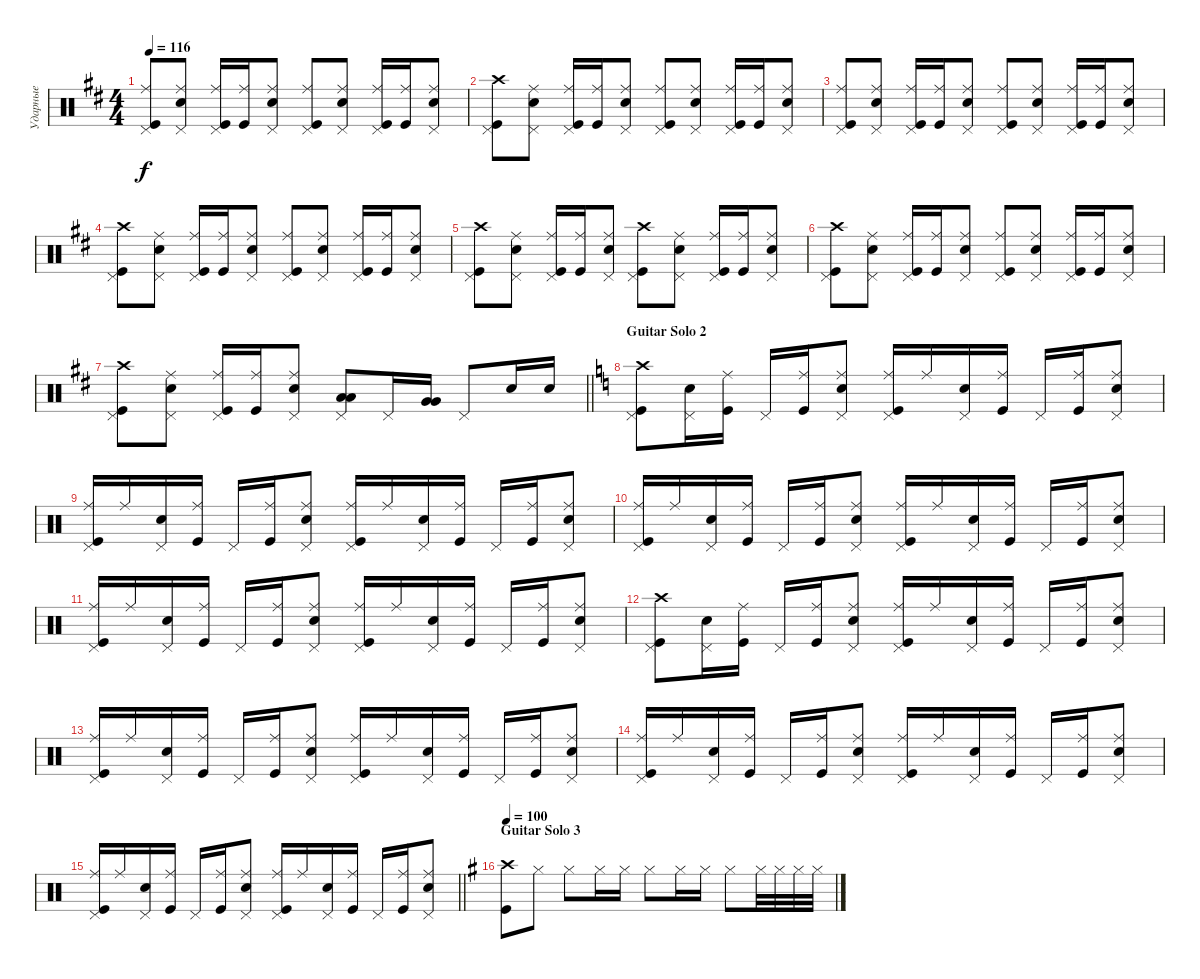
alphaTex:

\track ("Ударные" "Ударные") {instrument percussion}
\staff {score}
\articulation defaults
\ts (4 4)
\tempo 116
\clef neutral
\ks bminor
("Kick (hit)" "Ride (middle)" "Pedal Hi-Hat (hit)").8{dy f} ("Snare (hit) 2" "Pedal Hi-Hat (hit)" "Ride (middle)").8 ("Pedal Hi-Hat (hit)" "Kick (hit)" "Ride (middle)").16 ("Kick (hit)" "Ride (middle)").16 ("Snare (hit) 2" "Pedal Hi-Hat (hit)" "Ride (middle)").8 ("Kick (hit)" "Pedal Hi-Hat (hit)" "Ride (middle)").8 ("Snare (hit) 2" "Pedal Hi-Hat (hit)" "Ride (middle)").8 ("Kick (hit)" "Pedal Hi-Hat (hit)" "Ride (middle)").16 ("Kick (hit)" "Ride (middle)").16 ("Snare (hit) 2" "Pedal Hi-Hat (hit)" "Ride (middle)").8 |
("Kick (hit)" "Crash high (hit)" "Pedal Hi-Hat (hit)").8 ("Snare (hit) 2" "Pedal Hi-Hat (hit)" "Ride (middle)").8 ("Pedal Hi-Hat (hit)" "Kick (hit)" "Ride (middle)").16 ("Kick (hit)" "Ride (middle)").16 ("Snare (hit) 2" "Pedal Hi-Hat (hit)" "Ride (middle)").8 ("Kick (hit)" "Pedal Hi-Hat (hit)" "Ride (middle)").8 ("Snare (hit) 2" "Pedal Hi-Hat (hit)" "Ride (middle)").8 ("Kick (hit)" "Pedal Hi-Hat (hit)" "Ride (middle)").16 ("Kick (hit)" "Ride (middle)").16 ("Snare (hit) 2" "Pedal Hi-Hat (hit)" "Ride (middle)").8 |
("Kick (hit)" "Ride (middle)" "Pedal Hi-Hat (hit)").8 ("Snare (hit) 2" "Pedal Hi-Hat (hit)" "Ride (middle)").8 ("Pedal Hi-Hat (hit)" "Kick (hit)" "Ride (middle)").16 ("Kick (hit)" "Ride (middle)").16 ("Snare (hit) 2" "Pedal Hi-Hat (hit)" "Ride (middle)").8 ("Kick (hit)" "Pedal Hi-Hat (hit)" "Ride (middle)").8 ("Snare (hit) 2" "Pedal Hi-Hat (hit)" "Ride (middle)").8 ("Kick (hit)" "Pedal Hi-Hat (hit)" "Ride (middle)").16 ("Kick (hit)" "Ride (middle)").16 ("Snare (hit) 2" "Pedal Hi-Hat (hit)" "Ride (middle)").8 |
("Kick (hit)" "Crash high (hit)" "Pedal Hi-Hat (hit)").8 ("Snare (hit) 2" "Pedal Hi-Hat (hit)" "Ride (middle)").8 ("Pedal Hi-Hat (hit)" "Kick (hit)" "Ride (middle)").16 ("Kick (hit)" "Ride (middle)").16 ("Snare (hit) 2" "Pedal Hi-Hat (hit)" "Ride (middle)").8 ("Kick (hit)" "Pedal Hi-Hat (hit)" "Ride (middle)").8 ("Snare (hit) 2" "Pedal Hi-Hat (hit)" "Ride (middle)").8 ("Kick (hit)" "Pedal Hi-Hat (hit)" "Ride (middle)").16 ("Kick (hit)" "Ride (middle)").16 ("Snare (hit) 2" "Pedal Hi-Hat (hit)" "Ride (middle)").8 |
("Kick (hit)" "Crash high (hit)" "Pedal Hi-Hat (hit)").8 ("Snare (hit) 2" "Pedal Hi-Hat (hit)" "Ride (middle)").8 ("Pedal Hi-Hat (hit)" "Kick (hit)" "Ride (middle)").16 ("Kick (hit)" "Ride (middle)").16 ("Snare (hit) 2" "Pedal Hi-Hat (hit)" "Ride (middle)").8 ("Kick (hit)" "Pedal Hi-Hat (hit)" "Crash high (hit)").8 ("Snare (hit) 2" "Pedal Hi-Hat (hit)" "Ride (middle)").8 ("Kick (hit)" "Pedal Hi-Hat (hit)" "Ride (middle)").16 ("Kick (hit)" "Ride (middle)").16 ("Snare (hit) 2" "Pedal Hi-Hat (hit)" "Ride (middle)").8 |
("Kick (hit)" "Crash high (hit)" "Pedal Hi-Hat (hit)").8 ("Snare (hit) 2" "Pedal Hi-Hat (hit)" "Ride (middle)").8 ("Pedal Hi-Hat (hit)" "Kick (hit)" "Ride (middle)").16 ("Kick (hit)" "Ride (middle)").16 ("Snare (hit) 2" "Pedal Hi-Hat (hit)" "Ride (middle)").8 ("Kick (hit)" "Pedal Hi-Hat (hit)" "Ride (middle)").8 ("Snare (hit) 2" "Pedal Hi-Hat (hit)" "Ride (middle)").8 ("Kick (hit)" "Pedal Hi-Hat (hit)" "Ride (middle)").16 ("Kick (hit)" "Ride (middle)").16 ("Snare (hit) 2" "Pedal Hi-Hat (hit)" "Ride (middle)").8 |
\barLineRight lightlight
("Kick (hit)" "Crash high (hit)" "Pedal Hi-Hat (hit)").8 ("Snare (hit) 2" "Pedal Hi-Hat (hit)" "Ride (middle)").8 ("Pedal Hi-Hat (hit)" "Kick (hit)" "Ride (middle)").16 ("Kick (hit)" "Ride (middle)").16 ("Snare (hit) 2" "Pedal Hi-Hat (hit)" "Ride (middle)").8 ("Pedal Hi-Hat (hit)" "Low Tom (hit)" "Low Tom (hit)").8{bd 240} "Pedal Hi-Hat (hit)".16 ("Very Low Tom (hit)" "Very Low Tom (hit)").16{bd 480} "Pedal Hi-Hat (hit)".8 "Snare (hit) 2".16 "Snare (hit) 2".16 |
\section ("" "Guitar Solo 2")
\ks aminor
("Kick (hit)" "Crash high (hit)" "Pedal Hi-Hat (hit)").8 ("Snare (hit) 2" "Pedal Hi-Hat (hit)").16 ("Kick (hit)" "Ride (middle)").16 "Pedal Hi-Hat (hit)".16 ("Ride (middle)" "Kick (hit)").16 ("Snare (hit) 2" "Ride (middle)" "Pedal Hi-Hat (hit)").8 ("Kick (hit)" "Ride (middle)" "Pedal Hi-Hat (hit)").16 "Ride (middle)".16 ("Snare (hit) 2" "Pedal Hi-Hat (hit)").16 ("Kick (hit)" "Ride (middle)").16 "Pedal Hi-Hat (hit)".16 ("Ride (middle)" "Kick (hit)").16 ("Ride (middle)" "Snare (hit) 2" "Pedal Hi-Hat (hit)").8 |
("Kick (hit)" "Ride (middle)" "Pedal Hi-Hat (hit)").16 "Ride (middle)".16 ("Snare (hit) 2" "Pedal Hi-Hat (hit)").16 ("Kick (hit)" "Ride (middle)").16 "Pedal Hi-Hat (hit)".16 ("Ride (middle)" "Kick (hit)").16 ("Snare (hit) 2" "Ride (middle)" "Pedal Hi-Hat (hit)").8 ("Kick (hit)" "Ride (middle)" "Pedal Hi-Hat (hit)").16 "Ride (middle)".16 ("Snare (hit) 2" "Pedal Hi-Hat (hit)").16 ("Kick (hit)" "Ride (middle)").16 "Pedal Hi-Hat (hit)".16 ("Ride (middle)" "Kick (hit)").16 ("Ride (middle)" "Snare (hit) 2" "Pedal Hi-Hat (hit)").8 |
("Kick (hit)" "Ride (middle)" "Pedal Hi-Hat (hit)").16 "Ride (middle)".16 ("Snare (hit) 2" "Pedal Hi-Hat (hit)").16 ("Kick (hit)" "Ride (middle)").16 "Pedal Hi-Hat (hit)".16 ("Ride (middle)" "Kick (hit)").16 ("Snare (hit) 2" "Ride (middle)" "Pedal Hi-Hat (hit)").8 ("Kick (hit)" "Ride (middle)" "Pedal Hi-Hat (hit)").16 "Ride (middle)".16 ("Snare (hit) 2" "Pedal Hi-Hat (hit)").16 ("Kick (hit)" "Ride (middle)").16 "Pedal Hi-Hat (hit)".16 ("Ride (middle)" "Kick (hit)").16 ("Ride (middle)" "Snare (hit) 2" "Pedal Hi-Hat (hit)").8 |
("Kick (hit)" "Ride (middle)" "Pedal Hi-Hat (hit)").16 "Ride (middle)".16 ("Snare (hit) 2" "Pedal Hi-Hat (hit)").16 ("Kick (hit)" "Ride (middle)").16 "Pedal Hi-Hat (hit)".16 ("Ride (middle)" "Kick (hit)").16 ("Snare (hit) 2" "Ride (middle)" "Pedal Hi-Hat (hit)").8 ("Kick (hit)" "Ride (middle)" "Pedal Hi-Hat (hit)").16 "Ride (middle)".16 ("Snare (hit) 2" "Pedal Hi-Hat (hit)").16 ("Kick (hit)" "Ride (middle)").16 "Pedal Hi-Hat (hit)".16 ("Ride (middle)" "Kick (hit)").16 ("Ride (middle)" "Snare (hit) 2" "Pedal Hi-Hat (hit)").8 |
("Kick (hit)" "Crash high (hit)" "Pedal Hi-Hat (hit)").8 ("Snare (hit) 2" "Pedal Hi-Hat (hit)").16 ("Kick (hit)" "Ride (middle)").16 "Pedal Hi-Hat (hit)".16 ("Ride (middle)" "Kick (hit)").16 ("Snare (hit) 2" "Ride (middle)" "Pedal Hi-Hat (hit)").8 ("Kick (hit)" "Ride (middle)" "Pedal Hi-Hat (hit)").16 "Ride (middle)".16 ("Snare (hit) 2" "Pedal Hi-Hat (hit)").16 ("Kick (hit)" "Ride (middle)").16 "Pedal Hi-Hat (hit)".16 ("Ride (middle)" "Kick (hit)").16 ("Ride (middle)" "Snare (hit) 2" "Pedal Hi-Hat (hit)").8 |
("Kick (hit)" "Ride (middle)" "Pedal Hi-Hat (hit)").16 "Ride (middle)".16 ("Snare (hit) 2" "Pedal Hi-Hat (hit)").16 ("Kick (hit)" "Ride (middle)").16 "Pedal Hi-Hat (hit)".16 ("Ride (middle)" "Kick (hit)").16 ("Snare (hit) 2" "Ride (middle)" "Pedal Hi-Hat (hit)").8 ("Kick (hit)" "Ride (middle)" "Pedal Hi-Hat (hit)").16 "Ride (middle)".16 ("Snare (hit) 2" "Pedal Hi-Hat (hit)").16 ("Kick (hit)" "Ride (middle)").16 "Pedal Hi-Hat (hit)".16 ("Ride (middle)" "Kick (hit)").16 ("Ride (middle)" "Snare (hit) 2" "Pedal Hi-Hat (hit)").8 |
("Kick (hit)" "Ride (middle)" "Pedal Hi-Hat (hit)").16 "Ride (middle)".16 ("Snare (hit) 2" "Pedal Hi-Hat (hit)").16 ("Kick (hit)" "Ride (middle)").16 "Pedal Hi-Hat (hit)".16 ("Ride (middle)" "Kick (hit)").16 ("Snare (hit) 2" "Ride (middle)" "Pedal Hi-Hat (hit)").8 ("Kick (hit)" "Ride (middle)" "Pedal Hi-Hat (hit)").16 "Ride (middle)".16 ("Snare (hit) 2" "Pedal Hi-Hat (hit)").16 ("Kick (hit)" "Ride (middle)").16 "Pedal Hi-Hat (hit)".16 ("Ride (middle)" "Kick (hit)").16 ("Ride (middle)" "Snare (hit) 2" "Pedal Hi-Hat (hit)").8 |
\barLineRight lightlight
("Kick (hit)" "Ride (middle)" "Pedal Hi-Hat (hit)").16 "Ride (middle)".16 ("Snare (hit) 2" "Pedal Hi-Hat (hit)").16 ("Kick (hit)" "Ride (middle)").16 "Pedal Hi-Hat (hit)".16 ("Ride (middle)" "Kick (hit)").16 ("Snare (hit) 2" "Ride (middle)" "Pedal Hi-Hat (hit)").8 ("Kick (hit)" "Ride (middle)" "Pedal Hi-Hat (hit)").16 "Ride (middle)".16 ("Snare (hit) 2" "Pedal Hi-Hat (hit)").16 ("Kick (hit)" "Ride (middle)").16 "Pedal Hi-Hat (hit)".16 ("Ride (middle)" "Kick (hit)").16 ("Ride (middle)" "Snare (hit) 2" "Pedal Hi-Hat (hit)").8 |
\section ("" "Guitar Solo 3")
\tempo 100
\ks eminor
("Kick (hit)" "Crash high (hit)").8 "Hi-Hat (closed)".8 "Hi-Hat (closed)".8 "Hi-Hat (closed)".16 "Hi-Hat (closed)".16 "Hi-Hat (closed)".8 "Hi-Hat (closed)".16 "Hi-Hat (closed)".16 "Hi-Hat (closed)".8 "Hi-Hat (closed)".32 "Hi-Hat (closed)".32 "Hi-Hat (closed)".32 "Hi-Hat (closed)".32
